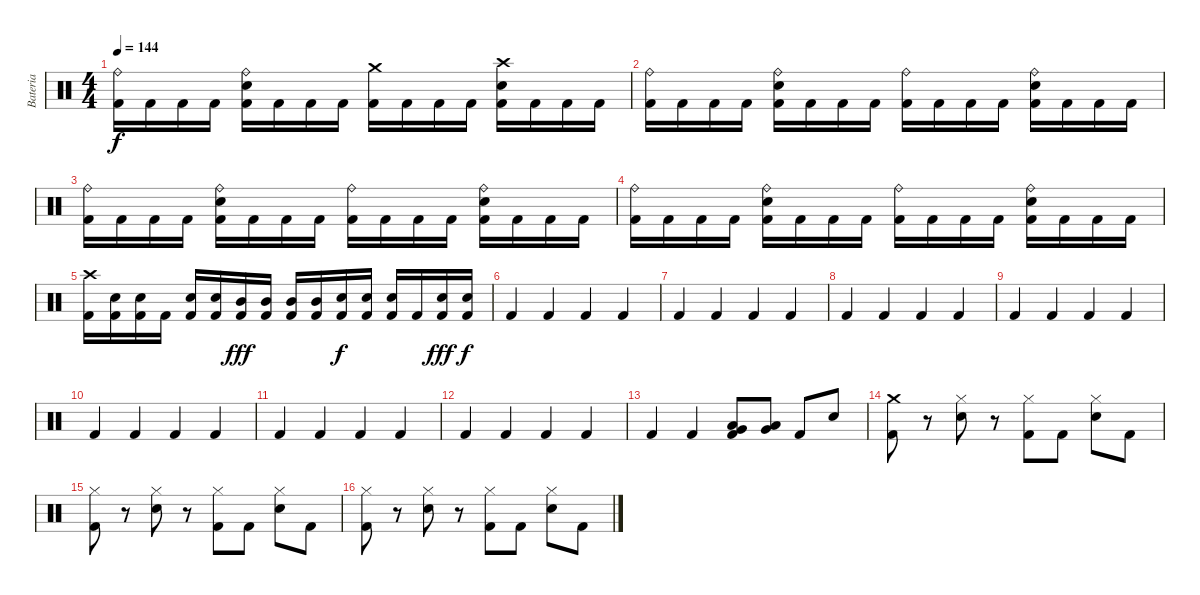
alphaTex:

\track ("Bateria" "Bateria") {instrument percussion}
\staff {score}
\articulation defaults
\ts (4 4)
\tempo 144
\clef neutral
\ks c
("Ride (bell)" "Kick (hit) 2").16{dy f} "Kick (hit) 2".16 "Kick (hit) 2".16 "Kick (hit) 2".16 ("Ride (bell)" "Electric Snare (hit)" "Kick (hit) 2").16 "Kick (hit) 2".16 "Kick (hit) 2".16 "Kick (hit) 2".16 ("Crash medium (hit)" "Kick (hit) 2").16 "Kick (hit) 2".16 "Kick (hit) 2".16 "Kick (hit) 2".16 ("Crash high (hit)" "Electric Snare (hit)" "Kick (hit) 2").16 "Kick (hit) 2".16 "Kick (hit) 2".16 "Kick (hit) 2".16 |
("Ride (bell)" "Kick (hit) 2").16 "Kick (hit) 2".16 "Kick (hit) 2".16 "Kick (hit) 2".16 ("Ride (bell)" "Electric Snare (hit)" "Kick (hit) 2").16 "Kick (hit) 2".16 "Kick (hit) 2".16 "Kick (hit) 2".16 ("Ride (bell)" "Kick (hit) 2").16 "Kick (hit) 2".16 "Kick (hit) 2".16 "Kick (hit) 2".16 ("Ride (bell)" "Electric Snare (hit)" "Kick (hit) 2").16 "Kick (hit) 2".16 "Kick (hit) 2".16 "Kick (hit) 2".16 |
("Ride (bell)" "Kick (hit) 2").16 "Kick (hit) 2".16 "Kick (hit) 2".16 "Kick (hit) 2".16 ("Ride (bell)" "Electric Snare (hit)" "Kick (hit) 2").16 "Kick (hit) 2".16 "Kick (hit) 2".16 "Kick (hit) 2".16 ("Ride (bell)" "Kick (hit) 2").16 "Kick (hit) 2".16 "Kick (hit) 2".16 "Kick (hit) 2".16 ("Ride (bell)" "Electric Snare (hit)" "Kick (hit) 2").16 "Kick (hit) 2".16 "Kick (hit) 2".16 "Kick (hit) 2".16 |
("Ride (bell)" "Kick (hit) 2").16 "Kick (hit) 2".16 "Kick (hit) 2".16 "Kick (hit) 2".16 ("Ride (bell)" "Electric Snare (hit)" "Kick (hit) 2").16 "Kick (hit) 2".16 "Kick (hit) 2".16 "Kick (hit) 2".16 ("Ride (bell)" "Kick (hit) 2").16 "Kick (hit) 2".16 "Kick (hit) 2".16 "Kick (hit) 2".16 ("Ride (bell)" "Electric Snare (hit)" "Kick (hit) 2").16 "Kick (hit) 2".16 "Kick (hit) 2".16 "Kick (hit) 2".16 |
("Crash high (hit)" "Kick (hit) 2").16 ("Electric Snare (hit)" "Kick (hit) 2").16 ("Electric Snare (hit)" "Kick (hit) 2").16 "Kick (hit) 2".16 ("Electric Snare (hit)" "Kick (hit) 2").16 ("Electric Snare (hit)" "Kick (hit) 2").16 ("Mid Tom (hit)" "Kick (hit) 2").16{dy fff} ("Mid Tom (hit)" "Kick (hit) 2").16 ("Mid Tom (hit)" "Kick (hit) 2").16 ("Mid Tom (hit)" "Kick (hit) 2").16 ("Electric Snare (hit)" "Kick (hit) 2").16{dy f} ("Electric Snare (hit)" "Kick (hit) 2").16 ("Electric Snare (hit)" "Kick (hit) 2").16 "Kick (hit) 2".16 ("Electric Snare (hit)" "Kick (hit) 2").16{dy fff} ("Electric Snare (hit)" "Kick (hit) 2").16{dy f} |
"Kick (hit) 2".4 "Kick (hit) 2".4 "Kick (hit) 2".4 "Kick (hit) 2".4 |
"Kick (hit) 2".4 "Kick (hit) 2".4 "Kick (hit) 2".4 "Kick (hit) 2".4 |
"Kick (hit) 2".4 "Kick (hit) 2".4 "Kick (hit) 2".4 "Kick (hit) 2".4 |
"Kick (hit) 2".4 "Kick (hit) 2".4 "Kick (hit) 2".4 "Kick (hit) 2".4 |
"Kick (hit) 2".4 "Kick (hit) 2".4 "Kick (hit) 2".4 "Kick (hit) 2".4 |
"Kick (hit) 2".4 "Kick (hit) 2".4 "Kick (hit) 2".4 "Kick (hit) 2".4 |
"Kick (hit) 2".4 "Kick (hit) 2".4 "Kick (hit) 2".4 "Kick (hit) 2".4 |
"Kick (hit) 2".4 "Kick (hit) 2".4 ("Very Low Tom (hit)" "Low Tom (hit)" "Kick (hit) 2").8 ("Very Low Tom (hit)" "Low Tom (hit)").8 "Kick (hit) 2".8 "Electric Snare (hit)".8 |
("Crash medium (hit)" "Kick (hit) 2").8 r.8 ("Hi-Hat (closed)" "Electric Snare (hit)").8 r.8 ("Hi-Hat (closed)" "Kick (hit) 2").8 "Kick (hit) 2".8 ("Hi-Hat (closed)" "Electric Snare (hit)").8 "Kick (hit) 2".8 |
("Hi-Hat (closed)" "Kick (hit) 2").8 r.8 ("Hi-Hat (closed)" "Electric Snare (hit)").8 r.8 ("Hi-Hat (closed)" "Kick (hit) 2").8 "Kick (hit) 2".8 ("Hi-Hat (closed)" "Electric Snare (hit)").8 "Kick (hit) 2".8 |
("Hi-Hat (closed)" "Kick (hit) 2").8 r.8 ("Hi-Hat (closed)" "Electric Snare (hit)").8 r.8 ("Hi-Hat (closed)" "Kick (hit) 2").8 "Kick (hit) 2".8 ("Hi-Hat (closed)" "Electric Snare (hit)").8 "Kick (hit) 2".8
